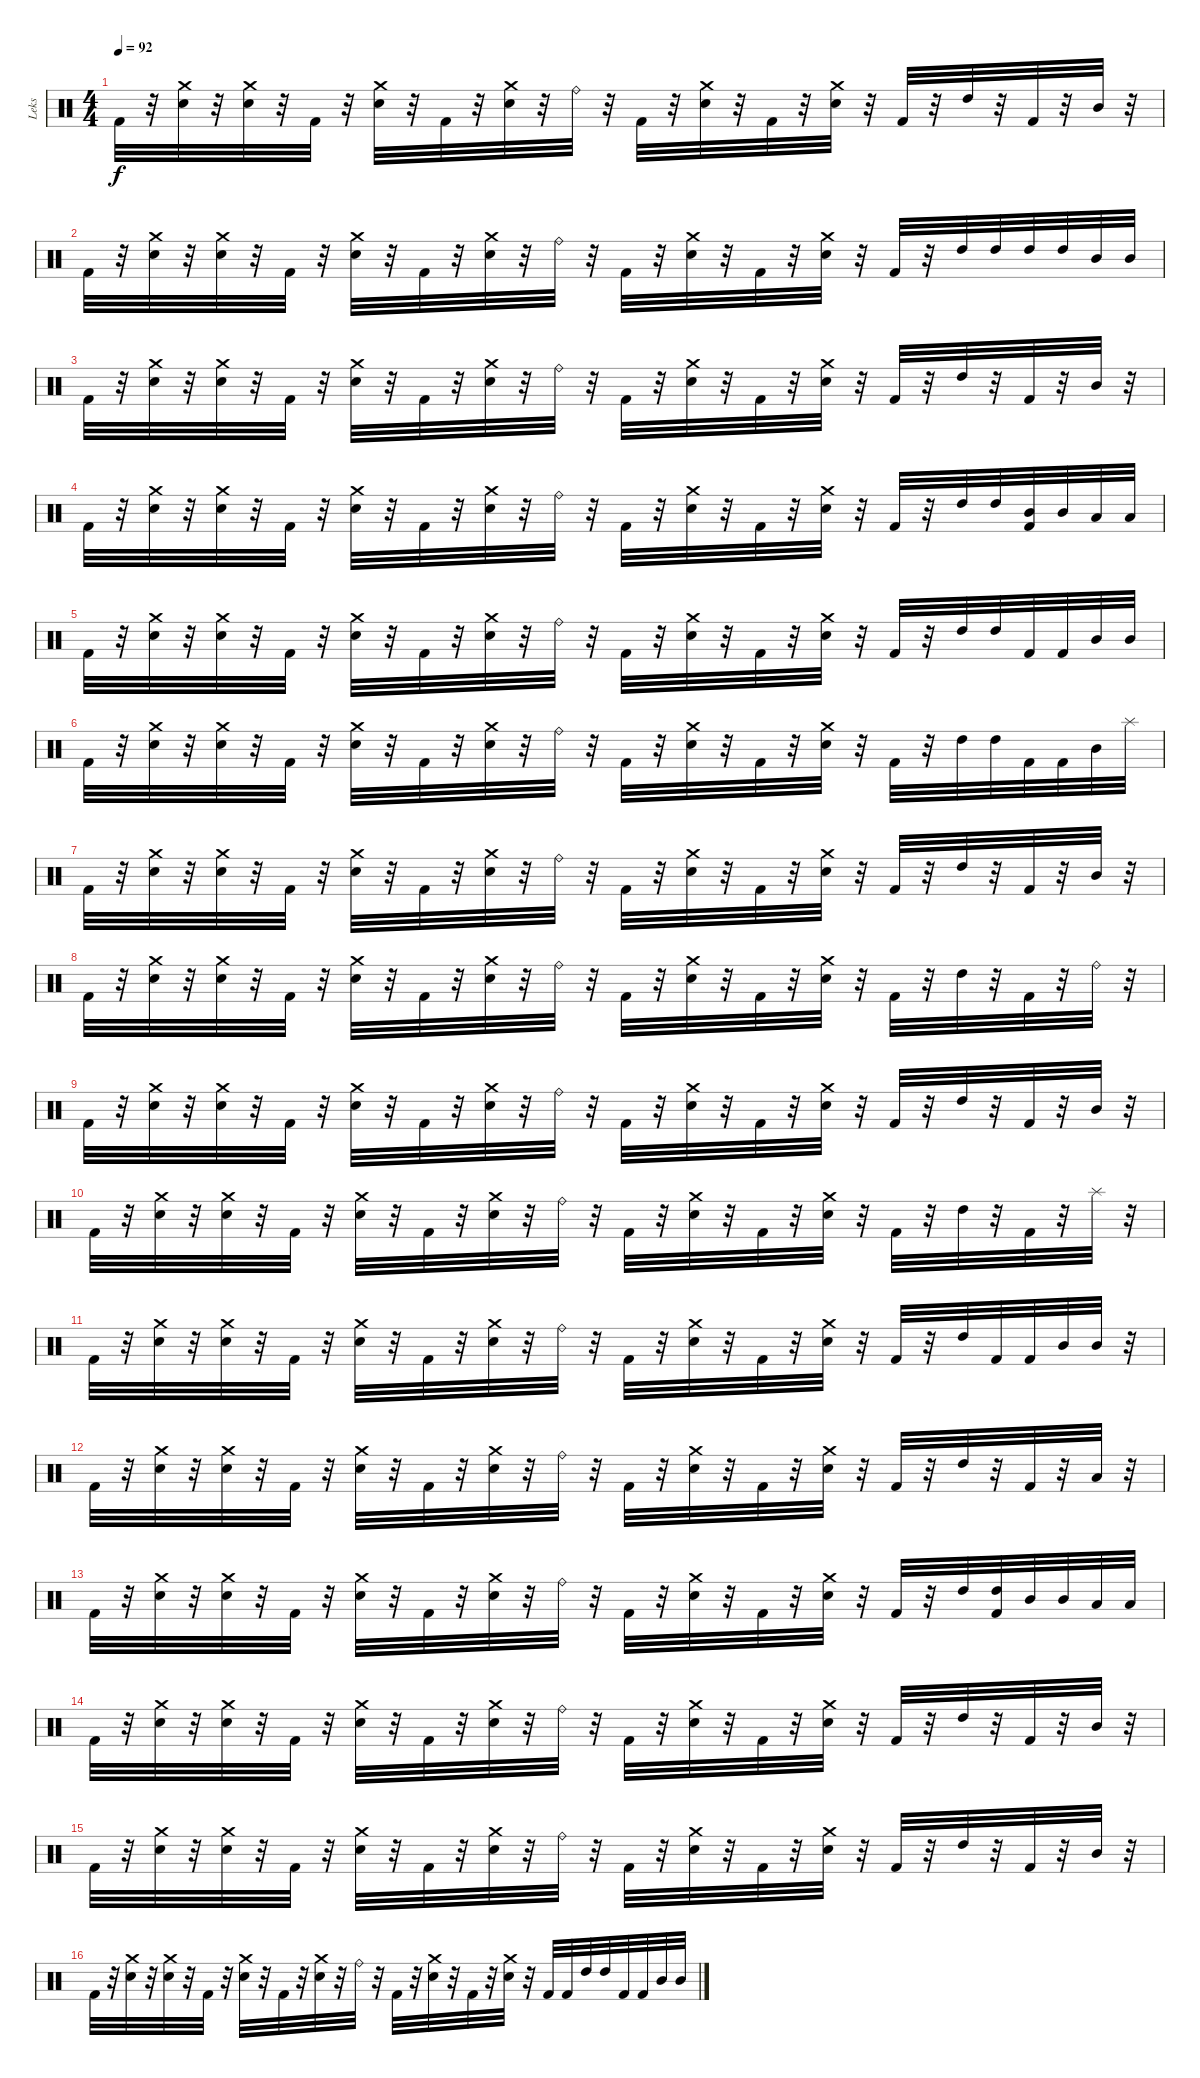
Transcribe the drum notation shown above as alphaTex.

\track ("Leks" "Leks") {instrument percussion}
\staff {score}
\articulation defaults
\ts (4 4)
\tempo 92
\clef neutral
\ks c "Kick (hit) 2".32{dy f}
r.32 ("Crash medium (hit)" "Snare (hit) 2").32 r.32 ("Crash medium (hit)" "Snare (hit) 2").32 r.32 "Kick (hit) 2".32 r.32 ("Crash medium (hit)" "Snare (hit) 2").32 r.32 "Kick (hit) 2".32 r.32 ("Crash medium (hit)" "Snare (hit) 2").32 r.32 "Ride (bell)".32 r.32 "Kick (hit) 2".32 r.32 ("Crash medium (hit)" "Snare (hit) 2").32 r.32 "Kick (hit) 2".32 r.32 ("Crash medium (hit)" "Snare (hit) 2").32 r.32 "Kick (hit) 2".32 r.32 "High Tom (hit)".32 r.32 "Kick (hit) 2".32 r.32 "Mid Tom (hit)".32 r.32 |
"Kick (hit) 2".32 r.32 ("Crash medium (hit)" "Snare (hit) 2").32 r.32 ("Crash medium (hit)" "Snare (hit) 2").32 r.32 "Kick (hit) 2".32 r.32 ("Crash medium (hit)" "Snare (hit) 2").32 r.32 "Kick (hit) 2".32 r.32 ("Crash medium (hit)" "Snare (hit) 2").32 r.32 "Ride (bell)".32 r.32 "Kick (hit) 2".32 r.32 ("Crash medium (hit)" "Snare (hit) 2").32 r.32 "Kick (hit) 2".32 r.32 ("Crash medium (hit)" "Snare (hit) 2").32 r.32 "Kick (hit) 2".32 r.32 "High Tom (hit)".32 "High Tom (hit)".32 "High Tom (hit)".32 "High Tom (hit)".32 "Mid Tom (hit)".32 "Mid Tom (hit)".32 |
"Kick (hit) 2".32 r.32 ("Crash medium (hit)" "Snare (hit) 2").32 r.32 ("Crash medium (hit)" "Snare (hit) 2").32 r.32 "Kick (hit) 2".32 r.32 ("Crash medium (hit)" "Snare (hit) 2").32 r.32 "Kick (hit) 2".32 r.32 ("Crash medium (hit)" "Snare (hit) 2").32 r.32 "Ride (bell)".32 r.32 "Kick (hit) 2".32 r.32 ("Crash medium (hit)" "Snare (hit) 2").32 r.32 "Kick (hit) 2".32 r.32 ("Crash medium (hit)" "Snare (hit) 2").32 r.32 "Kick (hit) 2".32 r.32 "High Tom (hit)".32 r.32 "Kick (hit) 2".32 r.32 "Mid Tom (hit)".32 r.32 |
"Kick (hit) 2".32 r.32 ("Crash medium (hit)" "Snare (hit) 2").32 r.32 ("Crash medium (hit)" "Snare (hit) 2").32 r.32 "Kick (hit) 2".32 r.32 ("Crash medium (hit)" "Snare (hit) 2").32 r.32 "Kick (hit) 2".32 r.32 ("Crash medium (hit)" "Snare (hit) 2").32 r.32 "Ride (bell)".32 r.32 "Kick (hit) 2".32 r.32 ("Crash medium (hit)" "Snare (hit) 2").32 r.32 "Kick (hit) 2".32 r.32 ("Crash medium (hit)" "Snare (hit) 2").32 r.32 "Kick (hit) 2".32 r.32 "High Tom (hit)".32 "High Tom (hit)".32 ("Mid Tom (hit)" "Kick (hit) 2").32 "Mid Tom (hit)".32 "Low Tom (hit)".32 "Low Tom (hit)".32 |
"Kick (hit) 2".32 r.32 ("Crash medium (hit)" "Snare (hit) 2").32 r.32 ("Crash medium (hit)" "Snare (hit) 2").32 r.32 "Kick (hit) 2".32 r.32 ("Crash medium (hit)" "Snare (hit) 2").32 r.32 "Kick (hit) 2".32 r.32 ("Crash medium (hit)" "Snare (hit) 2").32 r.32 "Ride (bell)".32 r.32 "Kick (hit) 2".32 r.32 ("Crash medium (hit)" "Snare (hit) 2").32 r.32 "Kick (hit) 2".32 r.32 ("Crash medium (hit)" "Snare (hit) 2").32 r.32 "Kick (hit) 2".32 r.32 "High Tom (hit)".32 "High Tom (hit)".32 "Kick (hit) 2".32 "Kick (hit) 2".32 "Mid Tom (hit)".32 "Mid Tom (hit)".32 |
"Kick (hit) 2".32 r.32 ("Crash medium (hit)" "Snare (hit) 2").32 r.32 ("Crash medium (hit)" "Snare (hit) 2").32 r.32 "Kick (hit) 2".32 r.32 ("Crash medium (hit)" "Snare (hit) 2").32 r.32 "Kick (hit) 2".32 r.32 ("Crash medium (hit)" "Snare (hit) 2").32 r.32 "Ride (bell)".32 r.32 "Kick (hit) 2".32 r.32 ("Crash medium (hit)" "Snare (hit) 2").32 r.32 "Kick (hit) 2".32 r.32 ("Crash medium (hit)" "Snare (hit) 2").32 r.32 "Kick (hit) 2".32 r.32 "High Tom (hit)".32 "High Tom (hit)".32 "Kick (hit) 2".32 "Kick (hit) 2".32 "Mid Tom (hit)".32 "Splash (hit)".32 |
"Kick (hit) 2".32 r.32 ("Crash medium (hit)" "Snare (hit) 2").32 r.32 ("Crash medium (hit)" "Snare (hit) 2").32 r.32 "Kick (hit) 2".32 r.32 ("Crash medium (hit)" "Snare (hit) 2").32 r.32 "Kick (hit) 2".32 r.32 ("Crash medium (hit)" "Snare (hit) 2").32 r.32 "Ride (bell)".32 r.32 "Kick (hit) 2".32 r.32 ("Crash medium (hit)" "Snare (hit) 2").32 r.32 "Kick (hit) 2".32 r.32 ("Crash medium (hit)" "Snare (hit) 2").32 r.32 "Kick (hit) 2".32 r.32 "High Tom (hit)".32 r.32 "Kick (hit) 2".32 r.32 "Mid Tom (hit)".32 r.32 |
"Kick (hit) 2".32 r.32 ("Crash medium (hit)" "Snare (hit) 2").32 r.32 ("Crash medium (hit)" "Snare (hit) 2").32 r.32 "Kick (hit) 2".32 r.32 ("Crash medium (hit)" "Snare (hit) 2").32 r.32 "Kick (hit) 2".32 r.32 ("Crash medium (hit)" "Snare (hit) 2").32 r.32 "Ride (bell)".32 r.32 "Kick (hit) 2".32 r.32 ("Crash medium (hit)" "Snare (hit) 2").32 r.32 "Kick (hit) 2".32 r.32 ("Crash medium (hit)" "Snare (hit) 2").32 r.32 "Kick (hit) 2".32 r.32 "High Tom (hit)".32 r.32 "Kick (hit) 2".32 r.32 "Ride (bell)".32 r.32 |
"Kick (hit) 2".32 r.32 ("Crash medium (hit)" "Snare (hit) 2").32 r.32 ("Crash medium (hit)" "Snare (hit) 2").32 r.32 "Kick (hit) 2".32 r.32 ("Crash medium (hit)" "Snare (hit) 2").32 r.32 "Kick (hit) 2".32 r.32 ("Crash medium (hit)" "Snare (hit) 2").32 r.32 "Ride (bell)".32 r.32 "Kick (hit) 2".32 r.32 ("Crash medium (hit)" "Snare (hit) 2").32 r.32 "Kick (hit) 2".32 r.32 ("Crash medium (hit)" "Snare (hit) 2").32 r.32 "Kick (hit) 2".32 r.32 "High Tom (hit)".32 r.32 "Kick (hit) 2".32 r.32 "Mid Tom (hit)".32 r.32 |
"Kick (hit) 2".32 r.32 ("Crash medium (hit)" "Snare (hit) 2").32 r.32 ("Crash medium (hit)" "Snare (hit) 2").32 r.32 "Kick (hit) 2".32 r.32 ("Crash medium (hit)" "Snare (hit) 2").32 r.32 "Kick (hit) 2".32 r.32 ("Crash medium (hit)" "Snare (hit) 2").32 r.32 "Ride (bell)".32 r.32 "Kick (hit) 2".32 r.32 ("Crash medium (hit)" "Snare (hit) 2").32 r.32 "Kick (hit) 2".32 r.32 ("Crash medium (hit)" "Snare (hit) 2").32 r.32 "Kick (hit) 2".32 r.32 "High Tom (hit)".32 r.32 "Kick (hit) 2".32 r.32 "Splash (hit)".32 r.32 |
"Kick (hit) 2".32 r.32 ("Crash medium (hit)" "Snare (hit) 2").32 r.32 ("Crash medium (hit)" "Snare (hit) 2").32 r.32 "Kick (hit) 2".32 r.32 ("Crash medium (hit)" "Snare (hit) 2").32 r.32 "Kick (hit) 2".32 r.32 ("Crash medium (hit)" "Snare (hit) 2").32 r.32 "Ride (bell)".32 r.32 "Kick (hit) 2".32 r.32 ("Crash medium (hit)" "Snare (hit) 2").32 r.32 "Kick (hit) 2".32 r.32 ("Crash medium (hit)" "Snare (hit) 2").32 r.32 "Kick (hit) 2".32 r.32 "High Tom (hit)".32 "Kick (hit) 2".32 "Kick (hit) 2".32 "Mid Tom (hit)".32 "Mid Tom (hit)".32 r.32 |
"Kick (hit) 2".32 r.32 ("Crash medium (hit)" "Snare (hit) 2").32 r.32 ("Crash medium (hit)" "Snare (hit) 2").32 r.32 "Kick (hit) 2".32 r.32 ("Crash medium (hit)" "Snare (hit) 2").32 r.32 "Kick (hit) 2".32 r.32 ("Crash medium (hit)" "Snare (hit) 2").32 r.32 "Ride (bell)".32 r.32 "Kick (hit) 2".32 r.32 ("Crash medium (hit)" "Snare (hit) 2").32 r.32 "Kick (hit) 2".32 r.32 ("Crash medium (hit)" "Snare (hit) 2").32 r.32 "Kick (hit) 2".32 r.32 "High Tom (hit)".32 r.32 "Kick (hit) 2".32 r.32 "Low Tom (hit)".32 r.32 |
"Kick (hit) 2".32 r.32 ("Crash medium (hit)" "Snare (hit) 2").32 r.32 ("Crash medium (hit)" "Snare (hit) 2").32 r.32 "Kick (hit) 2".32 r.32 ("Crash medium (hit)" "Snare (hit) 2").32 r.32 "Kick (hit) 2".32 r.32 ("Crash medium (hit)" "Snare (hit) 2").32 r.32 "Ride (bell)".32 r.32 "Kick (hit) 2".32 r.32 ("Crash medium (hit)" "Snare (hit) 2").32 r.32 "Kick (hit) 2".32 r.32 ("Crash medium (hit)" "Snare (hit) 2").32 r.32 "Kick (hit) 2".32 r.32 "High Tom (hit)".32 ("High Tom (hit)" "Kick (hit) 2").32 "Mid Tom (hit)".32 "Mid Tom (hit)".32 "Low Tom (hit)".32 "Low Tom (hit)".32 |
"Kick (hit) 2".32 r.32 ("Crash medium (hit)" "Snare (hit) 2").32 r.32 ("Crash medium (hit)" "Snare (hit) 2").32 r.32 "Kick (hit) 2".32 r.32 ("Crash medium (hit)" "Snare (hit) 2").32 r.32 "Kick (hit) 2".32 r.32 ("Crash medium (hit)" "Snare (hit) 2").32 r.32 "Ride (bell)".32 r.32 "Kick (hit) 2".32 r.32 ("Crash medium (hit)" "Snare (hit) 2").32 r.32 "Kick (hit) 2".32 r.32 ("Crash medium (hit)" "Snare (hit) 2").32 r.32 "Kick (hit) 2".32 r.32 "High Tom (hit)".32 r.32 "Kick (hit) 2".32 r.32 "Mid Tom (hit)".32 r.32 |
"Kick (hit) 2".32 r.32 ("Crash medium (hit)" "Snare (hit) 2").32 r.32 ("Crash medium (hit)" "Snare (hit) 2").32 r.32 "Kick (hit) 2".32 r.32 ("Crash medium (hit)" "Snare (hit) 2").32 r.32 "Kick (hit) 2".32 r.32 ("Crash medium (hit)" "Snare (hit) 2").32 r.32 "Ride (bell)".32 r.32 "Kick (hit) 2".32 r.32 ("Crash medium (hit)" "Snare (hit) 2").32 r.32 "Kick (hit) 2".32 r.32 ("Crash medium (hit)" "Snare (hit) 2").32 r.32 "Kick (hit) 2".32 r.32 "High Tom (hit)".32 r.32 "Kick (hit) 2".32 r.32 "Mid Tom (hit)".32 r.32 |
"Kick (hit) 2".32 r.32 ("Crash medium (hit)" "Snare (hit) 2").32 r.32 ("Crash medium (hit)" "Snare (hit) 2").32 r.32 "Kick (hit) 2".32 r.32 ("Crash medium (hit)" "Snare (hit) 2").32 r.32 "Kick (hit) 2".32 r.32 ("Crash medium (hit)" "Snare (hit) 2").32 r.32 "Ride (bell)".32 r.32 "Kick (hit) 2".32 r.32 ("Crash medium (hit)" "Snare (hit) 2").32 r.32 "Kick (hit) 2".32 r.32 ("Crash medium (hit)" "Snare (hit) 2").32 r.32 "Kick (hit) 2".32 "Kick (hit) 2".32 "High Tom (hit)".32 "High Tom (hit)".32 "Kick (hit) 2".32 "Kick (hit) 2".32 "Mid Tom (hit)".32 "Mid Tom (hit)".32
